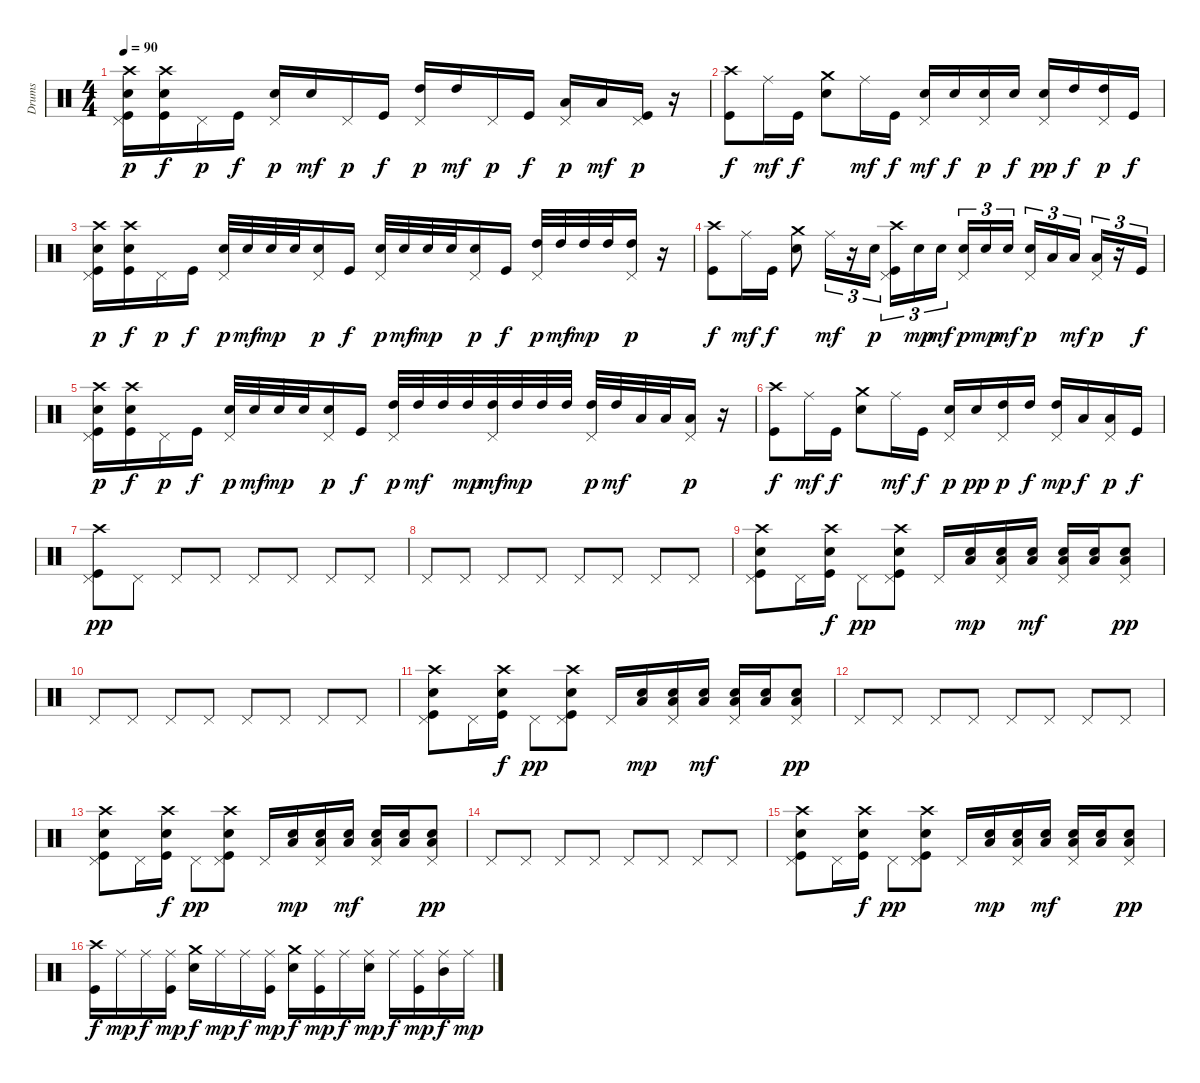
\track ("Drums" "Drums") {instrument percussion}
\staff {score}
\articulation defaults
\ts (4 4)
\tempo 90
\clef neutral
\ks c
("Crash high (hit)" "Pedal Hi-Hat (hit)" "Snare (hit) 2" "Kick (hit)").16{dy p} ("Crash high (hit)" "Snare (hit) 2" "Kick (hit)").16{dy f} "Pedal Hi-Hat (hit)".16{dy p} "Kick (hit)".16{dy f} ("Pedal Hi-Hat (hit)" "Snare (hit) 2").16{dy p} "Snare (hit) 2".16{dy mf} "Pedal Hi-Hat (hit)".16{dy p} "Kick (hit)".16{dy f} ("Pedal Hi-Hat (hit)" "High Tom (hit)").16{dy p} "High Tom (hit)".16{dy mf} "Pedal Hi-Hat (hit)".16{dy p} "Kick (hit)".16{dy f} ("Pedal Hi-Hat (hit)" "Low Tom (hit)").16{dy p} "Low Tom (hit)".16{dy mf} ("Pedal Hi-Hat (hit)" "Kick (hit)").16{dy p} r.16 |
("Crash high (hit)" "Kick (hit)").8{dy f} "Ride (middle)".16{dy mf} "Kick (hit)".16{dy f} ("Crash medium (hit)" "Snare (hit) 2").8 "Ride (middle)".16{dy mf} "Kick (hit)".16{dy f} ("Pedal Hi-Hat (hit)" "Snare (hit) 2").16{dy mf} "Snare (hit) 2".16{dy f} ("Pedal Hi-Hat (hit)" "Snare (hit) 2").16{dy p} "Snare (hit) 2".16{dy f} ("Pedal Hi-Hat (hit)" "Snare (hit) 2").16{dy pp} "High Tom (hit)".16{dy f} ("Pedal Hi-Hat (hit)" "High Tom (hit)").16{dy p} "Kick (hit)".16{dy f} |
("Crash high (hit)" "Pedal Hi-Hat (hit)" "Snare (hit) 2" "Kick (hit)").16{dy p} ("Crash high (hit)" "Snare (hit) 2" "Kick (hit)").16{dy f} "Pedal Hi-Hat (hit)".16{dy p} "Kick (hit)".16{dy f} ("Pedal Hi-Hat (hit)" "Snare (hit) 2").32{dy p} "Snare (hit) 2".32{dy mf} "Snare (hit) 2".32{dy mp} "Snare (hit) 2".32 ("Pedal Hi-Hat (hit)" "Snare (hit) 2").16{dy p} "Kick (hit)".16{dy f} ("Pedal Hi-Hat (hit)" "Snare (hit) 2").32{dy p} "Snare (hit) 2".32{dy mf} "Snare (hit) 2".32{dy mp} "Snare (hit) 2".32 ("Pedal Hi-Hat (hit)" "Snare (hit) 2").16{dy p} "Kick (hit)".16{dy f} ("Pedal Hi-Hat (hit)" "High Tom (hit)").32{dy p} "High Tom (hit)".32{dy mf} "High Tom (hit)".32{dy mp} "High Tom (hit)".32 ("Pedal Hi-Hat (hit)" "High Tom (hit)").16{dy p} r.16 |
("Crash high (hit)" "Kick (hit)").8{dy f} "Ride (middle)".16{dy mf} "Kick (hit)".16{dy f} ("Crash medium (hit)" "Snare (hit) 2").8 "Ride (middle)".16{tu (3 2) dy mf} r.16{tu (3 2)} "Snare (hit) 2".16{tu (3 2) dy p} ("Crash high (hit)" "Pedal Hi-Hat (hit)" "Kick (hit)").16{tu (3 2)} "Snare (hit) 2".16{tu (3 2) dy mp} "Snare (hit) 2".16{tu (3 2) dy mf} ("Pedal Hi-Hat (hit)" "Snare (hit) 2").16{tu (3 2) dy p} "Snare (hit) 2".16{tu (3 2) dy mp} "Snare (hit) 2".16{tu (3 2) dy mf} ("Pedal Hi-Hat (hit)" "Snare (hit) 2").16{tu (3 2) dy p} "Low Tom (hit)".16{tu (3 2)} "Low Tom (hit)".16{tu (3 2) dy mf} ("Pedal Hi-Hat (hit)" "Low Tom (hit)").16{tu (3 2) dy p} r.16{tu (3 2)} "Kick (hit)".16{tu (3 2) dy f} |
("Crash high (hit)" "Pedal Hi-Hat (hit)" "Snare (hit) 2" "Kick (hit)").16{dy p} ("Crash high (hit)" "Snare (hit) 2" "Kick (hit)").16{dy f} "Pedal Hi-Hat (hit)".16{dy p} "Kick (hit)".16{dy f} ("Pedal Hi-Hat (hit)" "Snare (hit) 2").32{dy p} "Snare (hit) 2".32{dy mf} "Snare (hit) 2".32{dy mp} "Snare (hit) 2".32 ("Pedal Hi-Hat (hit)" "Snare (hit) 2").16{dy p} "Kick (hit)".16{dy f} ("Pedal Hi-Hat (hit)" "High Tom (hit)").32{dy p} "High Tom (hit)".32{dy mf} "High Tom (hit)".32 "High Tom (hit)".32{dy mp} ("Pedal Hi-Hat (hit)" "High Tom (hit)").32{dy mf} "High Tom (hit)".32{dy mp} "High Tom (hit)".32 "High Tom (hit)".32 ("Pedal Hi-Hat (hit)" "High Tom (hit)").32{dy p} "High Tom (hit)".32{dy mf} "Low Tom (hit)".32 "Low Tom (hit)".32 ("Pedal Hi-Hat (hit)" "Low Tom (hit)").16{dy p} r.16 |
("Crash high (hit)" "Kick (hit)").8{dy f} "Ride (middle)".16{dy mf} "Kick (hit)".16{dy f} ("Crash medium (hit)" "Snare (hit) 2").8 "Ride (middle)".16{dy mf} "Kick (hit)".16{dy f} ("Pedal Hi-Hat (hit)" "Snare (hit) 2").16{dy p} "Snare (hit) 2".16{dy pp} ("Pedal Hi-Hat (hit)" "High Tom (hit)").16{dy p} "High Tom (hit)".16{dy f} ("Pedal Hi-Hat (hit)" "High Tom (hit)").16{dy mp} "Low Tom (hit)".16{dy f} ("Pedal Hi-Hat (hit)" "Low Tom (hit)").16{dy p} "Kick (hit)".16{dy f} |
("Crash high (hit)" "Pedal Hi-Hat (hit)" "Kick (hit)").8{dy pp} "Pedal Hi-Hat (hit)".8 "Pedal Hi-Hat (hit)".8 "Pedal Hi-Hat (hit)".8 "Pedal Hi-Hat (hit)".8 "Pedal Hi-Hat (hit)".8 "Pedal Hi-Hat (hit)".8 "Pedal Hi-Hat (hit)".8 |
"Pedal Hi-Hat (hit)".8 "Pedal Hi-Hat (hit)".8 "Pedal Hi-Hat (hit)".8 "Pedal Hi-Hat (hit)".8 "Pedal Hi-Hat (hit)".8 "Pedal Hi-Hat (hit)".8 "Pedal Hi-Hat (hit)".8 "Pedal Hi-Hat (hit)".8 |
("Crash high (hit)" "Pedal Hi-Hat (hit)" "Snare (hit) 2" "Kick (hit)").8 "Pedal Hi-Hat (hit)".16 ("Crash high (hit)" "Snare (hit) 2" "Kick (hit)").16{dy f} "Pedal Hi-Hat (hit)".8{dy pp} ("Crash high (hit)" "Pedal Hi-Hat (hit)" "Snare (hit) 2" "Kick (hit)").8 "Pedal Hi-Hat (hit)".16 ("Low Tom (hit)" "Snare (hit) 2").16{dy mp} ("Pedal Hi-Hat (hit)" "Low Tom (hit)" "Snare (hit) 2").16 ("Low Tom (hit)" "Snare (hit) 2").16{dy mf} ("Pedal Hi-Hat (hit)" "Low Tom (hit)" "Snare (hit) 2").16 ("Low Tom (hit)" "Snare (hit) 2").16 ("Pedal Hi-Hat (hit)" "Low Tom (hit)" "Snare (hit) 2").8{dy pp} |
"Pedal Hi-Hat (hit)".8 "Pedal Hi-Hat (hit)".8 "Pedal Hi-Hat (hit)".8 "Pedal Hi-Hat (hit)".8 "Pedal Hi-Hat (hit)".8 "Pedal Hi-Hat (hit)".8 "Pedal Hi-Hat (hit)".8 "Pedal Hi-Hat (hit)".8 |
("Crash high (hit)" "Pedal Hi-Hat (hit)" "Snare (hit) 2" "Kick (hit)").8 "Pedal Hi-Hat (hit)".16 ("Crash high (hit)" "Snare (hit) 2" "Kick (hit)").16{dy f} "Pedal Hi-Hat (hit)".8{dy pp} ("Crash high (hit)" "Pedal Hi-Hat (hit)" "Snare (hit) 2" "Kick (hit)").8 "Pedal Hi-Hat (hit)".16 ("Low Tom (hit)" "Snare (hit) 2").16{dy mp} ("Pedal Hi-Hat (hit)" "Low Tom (hit)" "Snare (hit) 2").16 ("Low Tom (hit)" "Snare (hit) 2").16{dy mf} ("Pedal Hi-Hat (hit)" "Low Tom (hit)" "Snare (hit) 2").16 ("Low Tom (hit)" "Snare (hit) 2").16 ("Pedal Hi-Hat (hit)" "Low Tom (hit)" "Snare (hit) 2").8{dy pp} |
"Pedal Hi-Hat (hit)".8 "Pedal Hi-Hat (hit)".8 "Pedal Hi-Hat (hit)".8 "Pedal Hi-Hat (hit)".8 "Pedal Hi-Hat (hit)".8 "Pedal Hi-Hat (hit)".8 "Pedal Hi-Hat (hit)".8 "Pedal Hi-Hat (hit)".8 |
("Crash high (hit)" "Pedal Hi-Hat (hit)" "Snare (hit) 2" "Kick (hit)").8 "Pedal Hi-Hat (hit)".16 ("Crash high (hit)" "Snare (hit) 2" "Kick (hit)").16{dy f} "Pedal Hi-Hat (hit)".8{dy pp} ("Crash high (hit)" "Pedal Hi-Hat (hit)" "Snare (hit) 2" "Kick (hit)").8 "Pedal Hi-Hat (hit)".16 ("Low Tom (hit)" "Snare (hit) 2").16{dy mp} ("Pedal Hi-Hat (hit)" "Low Tom (hit)" "Snare (hit) 2").16 ("Low Tom (hit)" "Snare (hit) 2").16{dy mf} ("Pedal Hi-Hat (hit)" "Low Tom (hit)" "Snare (hit) 2").16 ("Low Tom (hit)" "Snare (hit) 2").16 ("Pedal Hi-Hat (hit)" "Low Tom (hit)" "Snare (hit) 2").8{dy pp} |
"Pedal Hi-Hat (hit)".8 "Pedal Hi-Hat (hit)".8 "Pedal Hi-Hat (hit)".8 "Pedal Hi-Hat (hit)".8 "Pedal Hi-Hat (hit)".8 "Pedal Hi-Hat (hit)".8 "Pedal Hi-Hat (hit)".8 "Pedal Hi-Hat (hit)".8 |
("Crash high (hit)" "Pedal Hi-Hat (hit)" "Snare (hit) 2" "Kick (hit)").8 "Pedal Hi-Hat (hit)".16 ("Crash high (hit)" "Snare (hit) 2" "Kick (hit)").16{dy f} "Pedal Hi-Hat (hit)".8{dy pp} ("Crash high (hit)" "Pedal Hi-Hat (hit)" "Snare (hit) 2" "Kick (hit)").8 "Pedal Hi-Hat (hit)".16 ("Low Tom (hit)" "Snare (hit) 2").16{dy mp} ("Pedal Hi-Hat (hit)" "Low Tom (hit)" "Snare (hit) 2").16 ("Low Tom (hit)" "Snare (hit) 2").16{dy mf} ("Pedal Hi-Hat (hit)" "Low Tom (hit)" "Snare (hit) 2").16 ("Low Tom (hit)" "Snare (hit) 2").16 ("Pedal Hi-Hat (hit)" "Low Tom (hit)" "Snare (hit) 2").8{dy pp} |
("Crash high (hit)" "Kick (hit)").16{dy f} "Ride (middle)".16{dy mp} "Ride (middle)".16{dy f} ("Ride (middle)" "Kick (hit)").16{dy mp} ("Crash medium (hit)" "Snare (hit) 2").16{dy f} "Ride (middle)".16{dy mp} "Ride (middle)".16{dy f} ("Ride (middle)" "Kick (hit)").16{dy mp} ("Crash medium (hit)" "Snare (hit) 2").16{dy f} ("Ride (middle)" "Kick (hit)").16{dy mp} "Ride (middle)".16{dy f} ("Ride (middle)" "Snare (hit) 2").16{dy mp} "Ride (middle)".16{dy f} ("Ride (middle)" "Kick (hit)").16{dy mp} ("Ride (middle)" "Mid Tom (hit)").16{dy f} "Ride (middle)".16{dy mp}
